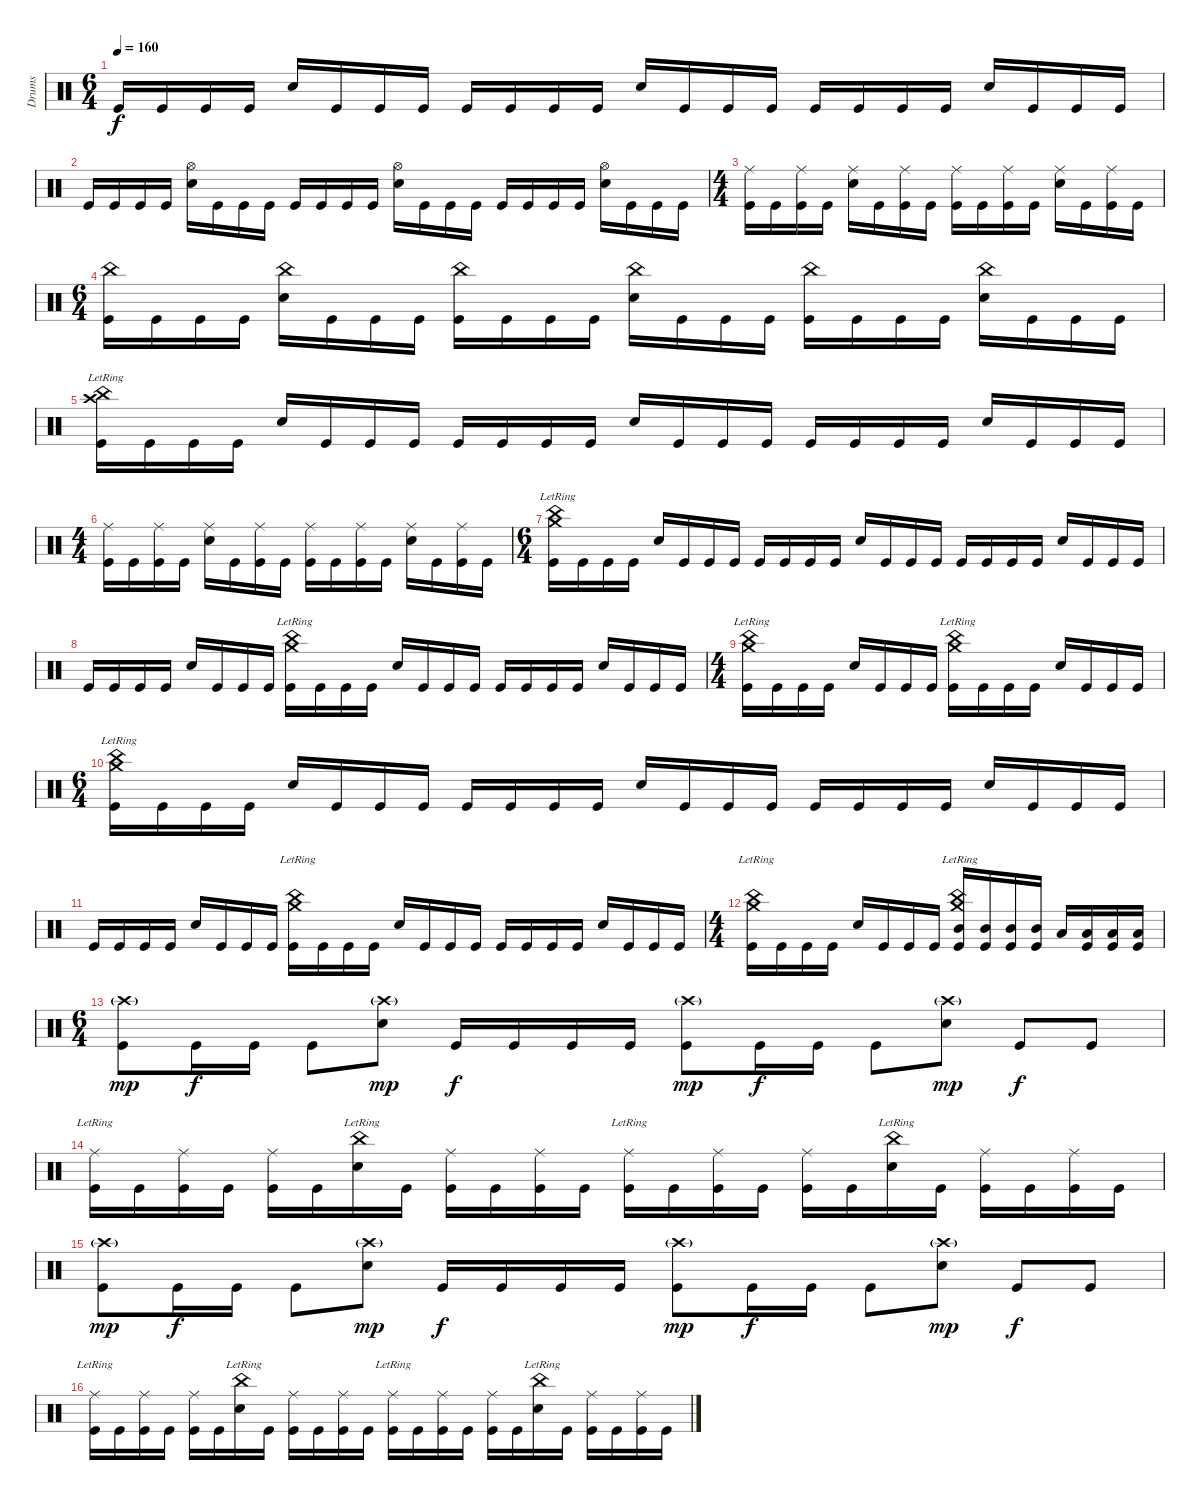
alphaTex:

\track ("Drums" "Drums") {instrument percussion}
\staff {score}
\articulation defaults
\ts (6 4)
\tempo 160
\clef neutral
\ks c "Kick (hit)".16{dy f} "Kick (hit)".16 "Kick (hit)".16 "Kick (hit)".16 "Snare (hit) 2".16 "Kick (hit)".16 "Kick (hit)".16 "Kick (hit)".16 "Kick (hit)".16 "Kick (hit)".16 "Kick (hit)".16 "Kick (hit)".16 "Snare (hit) 2".16 "Kick (hit)".16 "Kick (hit)".16 "Kick (hit)".16 "Kick (hit)".16 "Kick (hit)".16 "Kick (hit)".16 "Kick (hit)".16 "Snare (hit) 2".16 "Kick (hit)".16 "Kick (hit)".16 "Kick (hit)".16
|
"Kick (hit)".16 "Kick (hit)".16 "Kick (hit)".16 "Kick (hit)".16 ("Hi-Hat (open)" "Snare (hit) 2").16 "Kick (hit)".16 "Kick (hit)".16 "Kick (hit)".16 "Kick (hit)".16 "Kick (hit)".16 "Kick (hit)".16 "Kick (hit)".16 ("Hi-Hat (open)" "Snare (hit) 2").16 "Kick (hit)".16 "Kick (hit)".16 "Kick (hit)".16 "Kick (hit)".16 "Kick (hit)".16 "Kick (hit)".16 "Kick (hit)".16 ("Hi-Hat (open)" "Snare (hit) 2").16 "Kick (hit)".16 "Kick (hit)".16 "Kick (hit)".16 |
\ts (4 4)
("Ride (middle)" "Kick (hit)").16 "Kick (hit)".16 ("Ride (middle)" "Kick (hit)").16 "Kick (hit)".16 ("Ride (middle)" "Snare (hit) 2").16 "Kick (hit)".16 ("Ride (middle)" "Kick (hit)").16 "Kick (hit)".16 ("Ride (middle)" "Kick (hit)").16 "Kick (hit)".16 ("Ride (middle)" "Kick (hit)").16 "Kick (hit)".16 ("Ride (middle)" "Snare (hit) 2").16 "Kick (hit)".16 ("Ride (middle)" "Kick (hit)").16 "Kick (hit)".16 |
\ts (6 4)
("China (hit)" "Kick (hit)").16 "Kick (hit)".16 "Kick (hit)".16 "Kick (hit)".16 ("China (hit)" "Snare (hit) 2").16 "Kick (hit)".16 "Kick (hit)".16 "Kick (hit)".16 ("China (hit)" "Kick (hit)").16 "Kick (hit)".16 "Kick (hit)".16 "Kick (hit)".16 ("China (hit)" "Snare (hit) 2").16 "Kick (hit)".16 "Kick (hit)".16 "Kick (hit)".16 ("China (hit)" "Kick (hit)").16 "Kick (hit)".16 "Kick (hit)".16 "Kick (hit)".16 ("China (hit)" "Snare (hit) 2").16 "Kick (hit)".16 "Kick (hit)".16 "Kick (hit)".16 |
("China (hit)"{lr} "Crash high (hit)"{lr} "Kick (hit)").16 "Kick (hit)".16 "Kick (hit)".16 "Kick (hit)".16 "Snare (hit) 2".16 "Kick (hit)".16 "Kick (hit)".16 "Kick (hit)".16 "Kick (hit)".16 "Kick (hit)".16 "Kick (hit)".16 "Kick (hit)".16 "Snare (hit) 2".16 "Kick (hit)".16 "Kick (hit)".16 "Kick (hit)".16 "Kick (hit)".16 "Kick (hit)".16 "Kick (hit)".16 "Kick (hit)".16 "Snare (hit) 2".16 "Kick (hit)".16 "Kick (hit)".16 "Kick (hit)".16 |
\ts (4 4)
("Ride (middle)" "Kick (hit)").16 "Kick (hit)".16 ("Ride (middle)" "Kick (hit)").16 "Kick (hit)".16 ("Ride (middle)" "Snare (hit) 2").16 "Kick (hit)".16 ("Ride (middle)" "Kick (hit)").16 "Kick (hit)".16 ("Ride (middle)" "Kick (hit)").16 "Kick (hit)".16 ("Ride (middle)" "Kick (hit)").16 "Kick (hit)".16 ("Ride (middle)" "Snare (hit) 2").16 "Kick (hit)".16 ("Ride (middle)" "Kick (hit)").16 "Kick (hit)".16 |
\ts (6 4)
("Crash medium (hit)"{lr} "China (hit)"{lr} "Kick (hit)").16 "Kick (hit)".16 "Kick (hit)".16 "Kick (hit)".16 "Snare (hit) 2".16 "Kick (hit)".16 "Kick (hit)".16 "Kick (hit)".16 "Kick (hit)".16 "Kick (hit)".16 "Kick (hit)".16 "Kick (hit)".16 "Snare (hit) 2".16 "Kick (hit)".16 "Kick (hit)".16 "Kick (hit)".16 "Kick (hit)".16 "Kick (hit)".16 "Kick (hit)".16 "Kick (hit)".16 "Snare (hit) 2".16 "Kick (hit)".16 "Kick (hit)".16 "Kick (hit)".16 |
"Kick (hit)".16 "Kick (hit)".16 "Kick (hit)".16 "Kick (hit)".16 "Snare (hit) 2".16 "Kick (hit)".16 "Kick (hit)".16 "Kick (hit)".16 ("China (hit)"{lr} "Crash medium (hit)"{lr} "Kick (hit)").16 "Kick (hit)".16 "Kick (hit)".16 "Kick (hit)".16 "Snare (hit) 2".16 "Kick (hit)".16 "Kick (hit)".16 "Kick (hit)".16 "Kick (hit)".16 "Kick (hit)".16 "Kick (hit)".16 "Kick (hit)".16 "Snare (hit) 2".16 "Kick (hit)".16 "Kick (hit)".16 "Kick (hit)".16 |
\ts (4 4)
("China (hit)"{lr} "Crash medium (hit)"{lr} "Kick (hit)").16 "Kick (hit)".16 "Kick (hit)".16 "Kick (hit)".16 "Snare (hit) 2".16 "Kick (hit)".16 "Kick (hit)".16 "Kick (hit)".16 ("China (hit)"{lr} "Crash medium (hit)"{lr} "Kick (hit)").16 "Kick (hit)".16 "Kick (hit)".16 "Kick (hit)".16 "Snare (hit) 2".16 "Kick (hit)".16 "Kick (hit)".16 "Kick (hit)".16 |
\ts (6 4)
("Crash medium (hit)"{lr} "China (hit)"{lr} "Kick (hit)").16 "Kick (hit)".16 "Kick (hit)".16 "Kick (hit)".16 "Snare (hit) 2".16 "Kick (hit)".16 "Kick (hit)".16 "Kick (hit)".16 "Kick (hit)".16 "Kick (hit)".16 "Kick (hit)".16 "Kick (hit)".16 "Snare (hit) 2".16 "Kick (hit)".16 "Kick (hit)".16 "Kick (hit)".16 "Kick (hit)".16 "Kick (hit)".16 "Kick (hit)".16 "Kick (hit)".16 "Snare (hit) 2".16 "Kick (hit)".16 "Kick (hit)".16 "Kick (hit)".16 |
"Kick (hit)".16 "Kick (hit)".16 "Kick (hit)".16 "Kick (hit)".16 "Snare (hit) 2".16 "Kick (hit)".16 "Kick (hit)".16 "Kick (hit)".16 ("China (hit)"{lr} "Crash medium (hit)"{lr} "Kick (hit)").16 "Kick (hit)".16 "Kick (hit)".16 "Kick (hit)".16 "Snare (hit) 2".16 "Kick (hit)".16 "Kick (hit)".16 "Kick (hit)".16 "Kick (hit)".16 "Kick (hit)".16 "Kick (hit)".16 "Kick (hit)".16 "Snare (hit) 2".16 "Kick (hit)".16 "Kick (hit)".16 "Kick (hit)".16 |
\ts (4 4)
("China (hit)"{lr} "Crash medium (hit)"{lr} "Kick (hit)").16 "Kick (hit)".16 "Kick (hit)".16 "Kick (hit)".16 "Snare (hit) 2".16 "Kick (hit)".16 "Kick (hit)".16 "Kick (hit)".16 ("China (hit)"{lr} "Crash medium (hit)"{lr} "Mid Tom (hit)" "Kick (hit)").16 ("Mid Tom (hit)" "Kick (hit)").16 ("Mid Tom (hit)" "Kick (hit)").16 ("Mid Tom (hit)" "Kick (hit)").16 "Low Tom (hit)".16 ("Low Tom (hit)" "Kick (hit)").16 ("Low Tom (hit)" "Kick (hit)").16 ("Low Tom (hit)" "Kick (hit)").16 |
\ts (6 4)
("Crash high (hit)"{g} "Kick (hit)").8{dy mp} "Kick (hit)".16{dy f} "Kick (hit)".16 "Kick (hit)".8 ("Crash high (hit)"{g} "Snare (hit) 2").8{dy mp} "Kick (hit)".16{dy f} "Kick (hit)".16 "Kick (hit)".16 "Kick (hit)".16 ("Crash high (hit)"{g} "Kick (hit)").8{dy mp} "Kick (hit)".16{dy f} "Kick (hit)".16 "Kick (hit)".8 ("Crash high (hit)"{g} "Snare (hit) 2").8{dy mp} "Kick (hit)".8{dy f} "Kick (hit)".8 |
("Ride (middle)" "Kick (hit)"{lr}).16 "Kick (hit)".16 ("Ride (middle)" "Kick (hit)").16 "Kick (hit)".16 ("Ride (middle)" "Kick (hit)").16 "Kick (hit)".16 ("China (hit)"{lr} "Snare (hit) 2").16 "Kick (hit)".16 ("Ride (middle)" "Kick (hit)").16 "Kick (hit)".16 ("Ride (middle)" "Kick (hit)").16 "Kick (hit)".16 ("Ride (middle)" "Kick (hit)"{lr}).16 "Kick (hit)".16 ("Ride (middle)" "Kick (hit)").16 "Kick (hit)".16 ("Ride (middle)" "Kick (hit)").16 "Kick (hit)".16 ("China (hit)"{lr} "Snare (hit) 2").16 "Kick (hit)".16 ("Ride (middle)" "Kick (hit)").16 "Kick (hit)".16 ("Ride (middle)" "Kick (hit)").16 "Kick (hit)".16 |
("Crash high (hit)"{g} "Kick (hit)").8{dy mp} "Kick (hit)".16{dy f} "Kick (hit)".16 "Kick (hit)".8 ("Crash high (hit)"{g} "Snare (hit) 2").8{dy mp} "Kick (hit)".16{dy f} "Kick (hit)".16 "Kick (hit)".16 "Kick (hit)".16 ("Crash high (hit)"{g} "Kick (hit)").8{dy mp} "Kick (hit)".16{dy f} "Kick (hit)".16 "Kick (hit)".8 ("Crash high (hit)"{g} "Snare (hit) 2").8{dy mp} "Kick (hit)".8{dy f} "Kick (hit)".8 |
("Ride (middle)" "Kick (hit)"{lr}).16 "Kick (hit)".16 ("Ride (middle)" "Kick (hit)").16 "Kick (hit)".16 ("Ride (middle)" "Kick (hit)").16 "Kick (hit)".16 ("China (hit)"{lr} "Snare (hit) 2").16 "Kick (hit)".16 ("Ride (middle)" "Kick (hit)").16 "Kick (hit)".16 ("Ride (middle)" "Kick (hit)").16 "Kick (hit)".16 ("Ride (middle)" "Kick (hit)"{lr}).16 "Kick (hit)".16 ("Ride (middle)" "Kick (hit)").16 "Kick (hit)".16 ("Ride (middle)" "Kick (hit)").16 "Kick (hit)".16 ("China (hit)"{lr} "Snare (hit) 2").16 "Kick (hit)".16 ("Ride (middle)" "Kick (hit)").16 "Kick (hit)".16 ("Ride (middle)" "Kick (hit)").16 "Kick (hit)".16
